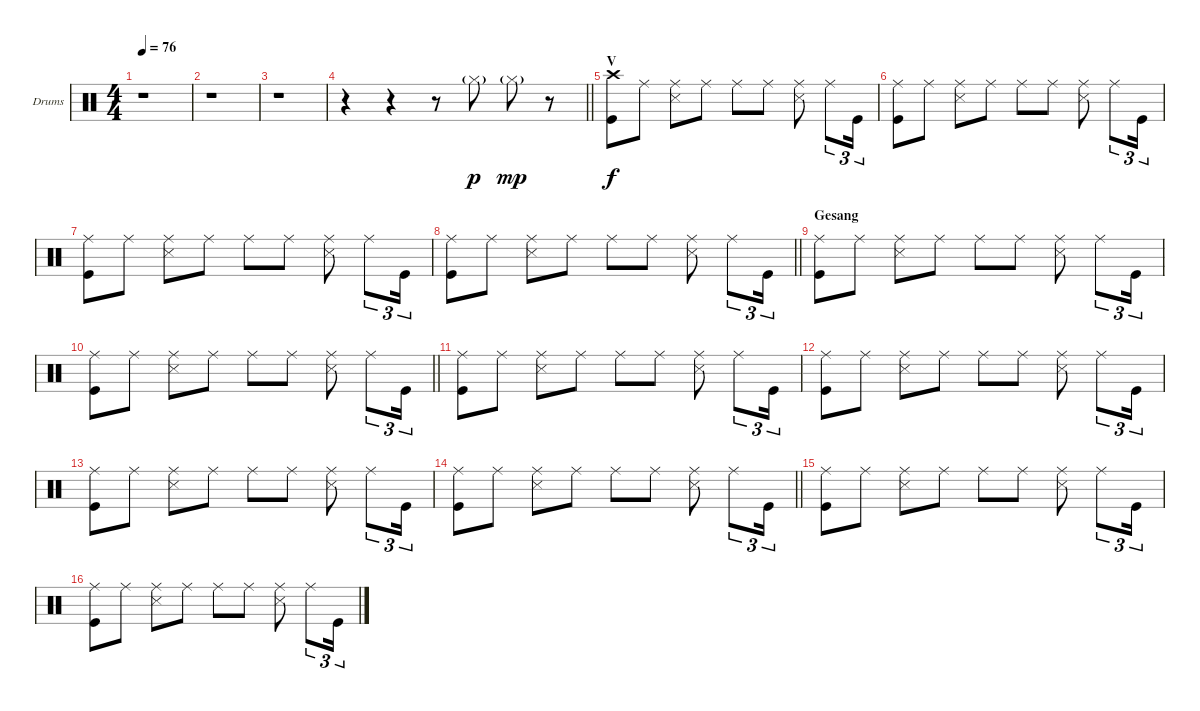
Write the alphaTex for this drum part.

\bracketExtendMode groupsimilarinstruments
\firstSystemTrackNameOrientation horizontal
\otherSystemsTrackNameOrientation horizontal
\track ("Drumkit" "Drums") {instrument percussion}
\staff {score}
\articulation defaults
\ts (4 4)
\tempo 76
\clef neutral
\ks c
r.1{dy mp} |
r.1 |
r.1 |
\barLineRight lightlight
r.4 r.4 r.8 "Hi-Hat (closed)"{g}.8{dy p} "Hi-Hat (closed)"{g}.8{dy mp} r.8 |
\section ("" "V")
("Crash high (hit)" "Kick (hit)").8{dy f} "Ride (middle)".8 ("Ride (middle)" "Snare (side stick) 3").8 "Ride (middle)".8 "Ride (middle)".8 "Ride (middle)".8 ("Ride (middle)" "Snare (side stick) 3").8 "Ride (middle)".8{tu (3 2)} "Kick (hit)".16{tu (3 2)} |
("Ride (middle)" "Kick (hit)").8 "Ride (middle)".8 ("Ride (middle)" "Snare (side stick) 3").8 "Ride (middle)".8 "Ride (middle)".8 "Ride (middle)".8 ("Ride (middle)" "Snare (side stick) 3").8 "Ride (middle)".8{tu (3 2)} "Kick (hit)".16{tu (3 2)} |
("Ride (middle)" "Kick (hit)").8 "Ride (middle)".8 ("Ride (middle)" "Snare (side stick) 3").8 "Ride (middle)".8 "Ride (middle)".8 "Ride (middle)".8 ("Ride (middle)" "Snare (side stick) 3").8 "Ride (middle)".8{tu (3 2)} "Kick (hit)".16{tu (3 2)} |
\barLineRight lightlight
("Ride (middle)" "Kick (hit)").8 "Ride (middle)".8 ("Ride (middle)" "Snare (side stick) 3").8 "Ride (middle)".8 "Ride (middle)".8 "Ride (middle)".8 ("Ride (middle)" "Snare (side stick) 3").8 "Ride (middle)".8{tu (3 2)} "Kick (hit)".16{tu (3 2)} |
\section ("" "Gesang")
("Ride (middle)" "Kick (hit)").8 "Ride (middle)".8 ("Ride (middle)" "Snare (side stick) 3").8 "Ride (middle)".8 "Ride (middle)".8 "Ride (middle)".8 ("Ride (middle)" "Snare (side stick) 3").8 "Ride (middle)".8{tu (3 2)} "Kick (hit)".16{tu (3 2)} |
\barLineRight lightlight
("Ride (middle)" "Kick (hit)").8 "Ride (middle)".8 ("Ride (middle)" "Snare (side stick) 3").8 "Ride (middle)".8 "Ride (middle)".8 "Ride (middle)".8 ("Ride (middle)" "Snare (side stick) 3").8 "Ride (middle)".8{tu (3 2)} "Kick (hit)".16{tu (3 2)} |
("Ride (middle)" "Kick (hit)").8 "Ride (middle)".8 ("Ride (middle)" "Snare (side stick) 3").8 "Ride (middle)".8 "Ride (middle)".8 "Ride (middle)".8 ("Ride (middle)" "Snare (side stick) 3").8 "Ride (middle)".8{tu (3 2)} "Kick (hit)".16{tu (3 2)} |
("Ride (middle)" "Kick (hit)").8 "Ride (middle)".8 ("Ride (middle)" "Snare (side stick) 3").8 "Ride (middle)".8 "Ride (middle)".8 "Ride (middle)".8 ("Ride (middle)" "Snare (side stick) 3").8 "Ride (middle)".8{tu (3 2)} "Kick (hit)".16{tu (3 2)} |
("Ride (middle)" "Kick (hit)").8 "Ride (middle)".8 ("Ride (middle)" "Snare (side stick) 3").8 "Ride (middle)".8 "Ride (middle)".8 "Ride (middle)".8 ("Ride (middle)" "Snare (side stick) 3").8 "Ride (middle)".8{tu (3 2)} "Kick (hit)".16{tu (3 2)} |
\barLineRight lightlight
("Ride (middle)" "Kick (hit)").8 "Ride (middle)".8 ("Ride (middle)" "Snare (side stick) 3").8 "Ride (middle)".8 "Ride (middle)".8 "Ride (middle)".8 ("Ride (middle)" "Snare (side stick) 3").8 "Ride (middle)".8{tu (3 2)} "Kick (hit)".16{tu (3 2)} |
("Ride (middle)" "Kick (hit)").8 "Ride (middle)".8 ("Ride (middle)" "Snare (side stick) 3").8 "Ride (middle)".8 "Ride (middle)".8 "Ride (middle)".8 ("Ride (middle)" "Snare (side stick) 3").8 "Ride (middle)".8{tu (3 2)} "Kick (hit)".16{tu (3 2)} |
("Ride (middle)" "Kick (hit)").8 "Ride (middle)".8 ("Ride (middle)" "Snare (side stick) 3").8 "Ride (middle)".8 "Ride (middle)".8 "Ride (middle)".8 ("Ride (middle)" "Snare (side stick) 3").8 "Ride (middle)".8{tu (3 2)} "Kick (hit)".16{tu (3 2)}
